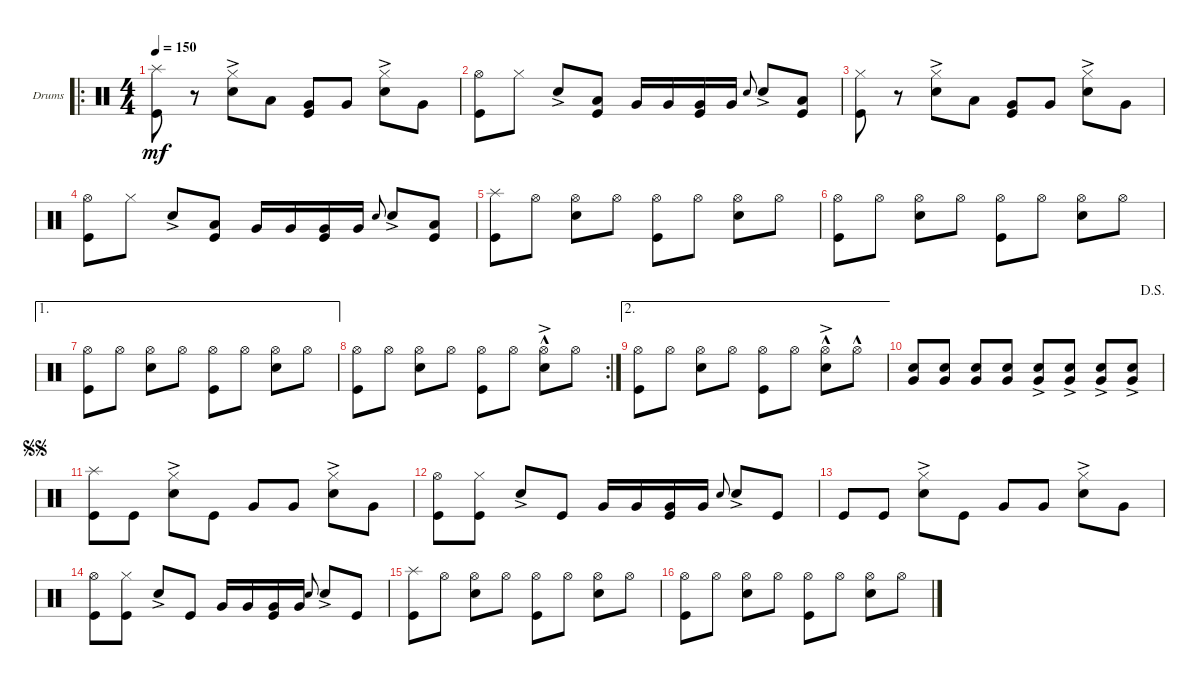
\bracketExtendMode groupsimilarinstruments
\firstSystemTrackNameOrientation horizontal
\otherSystemsTrackNameOrientation horizontal
\track ("Drumkit" "Drums") {instrument percussion}
\staff {score}
\articulation defaults
\ro
\ts (4 4)
\tempo 150
\clef neutral
\ks c
("Splash (hit)" "Kick (hit)").8{dy mf} r.8 ("Snare (hit) 2"{ac} "Hi-Hat (closed)").8 "Low Tom (hit)".8 ("Very Low Tom (hit)" "Kick (hit)").8 "Very Low Tom (hit)".8 ("Snare (hit) 2"{ac} "Hi-Hat (closed)").8 "Very Low Tom (hit)".8 |
("Hi-Hat (open)" "Kick (hit)").8 "Hi-Hat (closed)".8 "Snare (hit) 2"{ac}.8 ("Kick (hit)" "Low Tom (hit)").8 "Very Low Tom (hit)".16 "Very Low Tom (hit)".16 ("Kick (hit)" "Very Low Tom (hit)").16 "Very Low Tom (hit)".16 "Snare (hit) 2".8{gr onbeat} "Snare (hit) 2"{ac}.8 ("Kick (hit)" "Low Tom (hit)").8 |
("Kick (hit)" "Hi-Hat (closed)").8 r.8 ("Snare (hit) 2"{ac} "Hi-Hat (closed)").8 "Low Tom (hit)".8 ("Very Low Tom (hit)" "Kick (hit)").8 "Very Low Tom (hit)".8 ("Snare (hit) 2"{ac} "Hi-Hat (closed)").8 "Very Low Tom (hit)".8 |
("Hi-Hat (open)" "Kick (hit)").8 "Hi-Hat (closed)".8 "Snare (hit) 2"{ac}.8 ("Kick (hit)" "Low Tom (hit)").8 "Very Low Tom (hit)".16 "Very Low Tom (hit)".16 ("Kick (hit)" "Very Low Tom (hit)").16 "Very Low Tom (hit)".16 "Snare (hit) 2".8{gr onbeat} "Snare (hit) 2"{ac}.8 ("Kick (hit)" "Low Tom (hit)").8 |
("Splash (hit)" "Kick (hit)").8 "Hi-Hat (open)".8 ("Snare (hit) 2" "Hi-Hat (open)").8 "Hi-Hat (open)".8 ("Hi-Hat (open)" "Kick (hit)").8 "Hi-Hat (open)".8 ("Snare (hit) 2" "Hi-Hat (open)").8 "Hi-Hat (open)".8 |
("Hi-Hat (open)" "Kick (hit)").8 "Hi-Hat (open)".8 ("Snare (hit) 2" "Hi-Hat (open)").8 "Hi-Hat (open)".8 ("Hi-Hat (open)" "Kick (hit)").8 "Hi-Hat (open)".8 ("Snare (hit) 2" "Hi-Hat (open)").8 "Hi-Hat (open)".8 |
\ae 1
("Hi-Hat (open)" "Kick (hit)").8 "Hi-Hat (open)".8 ("Snare (hit) 2" "Hi-Hat (open)").8 "Hi-Hat (open)".8 ("Hi-Hat (open)" "Kick (hit)").8 "Hi-Hat (open)".8 ("Snare (hit) 2" "Hi-Hat (open)").8 "Hi-Hat (open)".8 |
\rc 2
("Hi-Hat (open)" "Kick (hit)").8 "Hi-Hat (open)".8 ("Snare (hit) 2" "Hi-Hat (open)").8 "Hi-Hat (open)".8 ("Hi-Hat (open)" "Kick (hit)").8 "Hi-Hat (open)".8 ("Snare (hit) 2"{hac} "Hi-Hat (open)"{ac}).8 "Hi-Hat (open)".8 |
\ae 2
("Hi-Hat (open)" "Kick (hit)").8 "Hi-Hat (open)".8 ("Snare (hit) 2" "Hi-Hat (open)").8 "Hi-Hat (open)".8 ("Hi-Hat (open)" "Kick (hit)").8 "Hi-Hat (open)".8 ("Snare (hit) 2"{hac} "Hi-Hat (open)"{ac}).8 "Hi-Hat (open)"{hac}.8 |
\jump dalsegno
("Snare (hit) 2" "Very Low Tom (hit)").8 ("Snare (hit) 2" "Very Low Tom (hit)").8 ("Snare (hit) 2" "Very Low Tom (hit)").8 ("Snare (hit) 2" "Very Low Tom (hit)").8 ("Snare (hit) 2"{ac} "Very Low Tom (hit)"{ac}).8 ("Snare (hit) 2"{ac} "Very Low Tom (hit)"{ac}).8 ("Snare (hit) 2"{ac} "Very Low Tom (hit)"{ac}).8 ("Snare (hit) 2"{ac} "Very Low Tom (hit)"{ac}).8 |
\jump segnosegno
("Splash (hit)" "Kick (hit)").8 "Kick (hit)".8 ("Snare (hit) 2"{ac} "Hi-Hat (closed)").8 "Kick (hit)".8 "Very Low Tom (hit)".8 "Very Low Tom (hit)".8 ("Snare (hit) 2"{ac} "Hi-Hat (closed)").8 "Very Low Tom (hit)".8 |
("Hi-Hat (open)" "Kick (hit)").8 ("Hi-Hat (closed)" "Kick (hit)").8 "Snare (hit) 2"{ac}.8 "Kick (hit)".8 "Very Low Tom (hit)".16 "Very Low Tom (hit)".16 ("Kick (hit)" "Very Low Tom (hit)").16 "Very Low Tom (hit)".16 "Snare (hit) 2".8{gr onbeat} "Snare (hit) 2"{ac}.8 "Kick (hit)".8 |
"Kick (hit)".8 "Kick (hit)".8 ("Snare (hit) 2"{ac} "Hi-Hat (closed)").8 "Kick (hit)".8 "Very Low Tom (hit)".8 "Very Low Tom (hit)".8 ("Snare (hit) 2"{ac} "Hi-Hat (closed)").8 "Very Low Tom (hit)".8 |
("Hi-Hat (open)" "Kick (hit)").8 ("Hi-Hat (closed)" "Kick (hit)").8 "Snare (hit) 2"{ac}.8 "Kick (hit)".8 "Very Low Tom (hit)".16 "Very Low Tom (hit)".16 ("Kick (hit)" "Very Low Tom (hit)").16 "Very Low Tom (hit)".16 "Snare (hit) 2".8{gr onbeat} "Snare (hit) 2"{ac}.8 "Kick (hit)".8 |
("Splash (hit)" "Kick (hit)").8 "Hi-Hat (open)".8 ("Snare (hit) 2" "Hi-Hat (open)").8 "Hi-Hat (open)".8 ("Hi-Hat (open)" "Kick (hit)").8 "Hi-Hat (open)".8 ("Snare (hit) 2" "Hi-Hat (open)").8 "Hi-Hat (open)".8 |
("Hi-Hat (open)" "Kick (hit)").8 "Hi-Hat (open)".8 ("Snare (hit) 2" "Hi-Hat (open)").8 "Hi-Hat (open)".8 ("Hi-Hat (open)" "Kick (hit)").8 "Hi-Hat (open)".8 ("Snare (hit) 2" "Hi-Hat (open)").8 "Hi-Hat (open)".8
